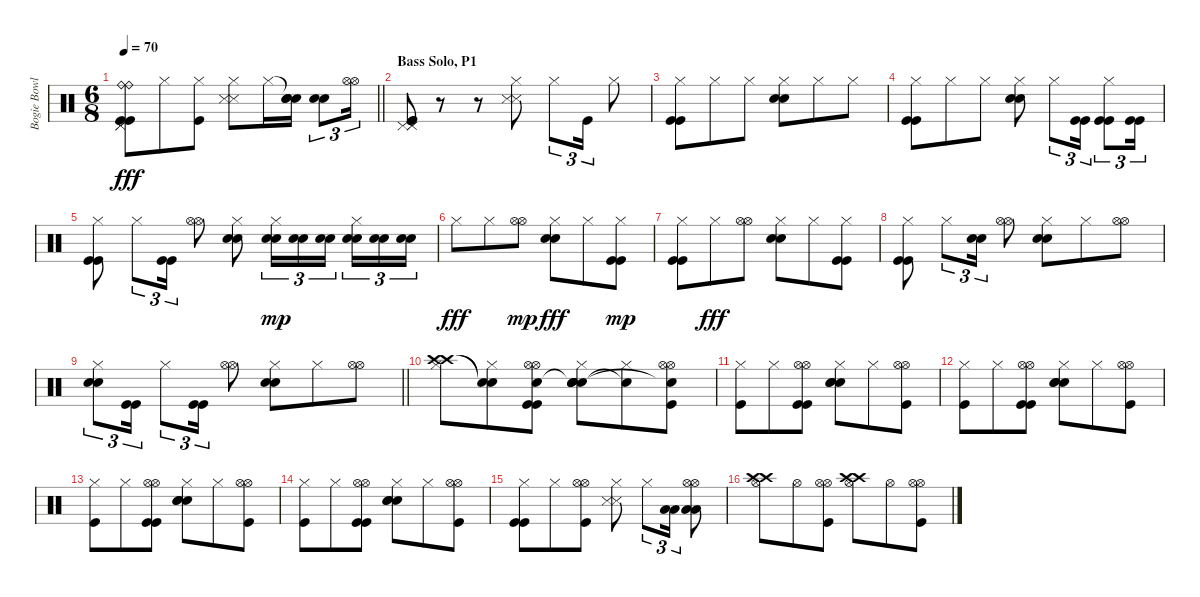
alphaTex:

\track ("Bogie Bowles" "Bogie Bowl") {instrument percussion}
\staff {score}
\articulation defaults
\ts (6 8)
\tempo 70
\clef neutral
\barLineRight lightlight
\ks c
("Pedal Hi-Hat (hit)" "Pedal Hi-Hat (hit)" "Ride (bell)" "Kick (hit)" "Kick (hit)" "Ride (bell)").8{dy fff} "Hi-Hat (closed)".8 ("Hi-Hat (closed)" "Kick (hit)").8 ("Hi-Hat (closed)" "Snare (side stick) 3" "Snare (side stick) 3").8 "Hi-Hat (closed)".16 ("Snare (hit)"{t} "Snare (hit) 2" "Snare (hit) 2").16 ("Snare (hit) 2" "Snare (hit) 2").8{tu (3 2)} ("Hi-Hat (open)" "Hi-Hat (open)").16{tu (3 2)} |
\section ("" "Bass Solo, P1")
("Pedal Hi-Hat (hit)" "Pedal Hi-Hat (hit)" "Pedal Hi-Hat (hit)" "Kick (hit)" "Kick (hit)").8 r.8{volume 16} r.8 ("Hi-Hat (closed)" "Snare (side stick) 3" "Snare (side stick) 3").8 "Hi-Hat (closed)".8{tu (3 2)} "Kick (hit)".16{tu (3 2)} "Hi-Hat (closed)".8 |
("Hi-Hat (closed)" "Kick (hit)" "Kick (hit)").8 "Hi-Hat (closed)".8 "Hi-Hat (closed)".8 ("Hi-Hat (closed)" "Snare (hit) 2" "Snare (hit) 2").8 "Hi-Hat (closed)".8 "Hi-Hat (closed)".8 |
("Hi-Hat (closed)" "Kick (hit)" "Kick (hit)").8 "Hi-Hat (closed)".8 "Hi-Hat (closed)".8 ("Hi-Hat (closed)" "Snare (hit) 2" "Snare (hit) 2").8 "Hi-Hat (closed)".8{tu (3 2)} ("Kick (hit)" "Kick (hit)").16{tu (3 2)} ("Hi-Hat (closed)" "Kick (hit)" "Kick (hit)").8{tu (3 2)} ("Kick (hit)" "Kick (hit)").16{tu (3 2)} |
("Hi-Hat (closed)" "Kick (hit)" "Kick (hit)").8 "Hi-Hat (closed)".8{tu (3 2)} ("Kick (hit)" "Kick (hit)").16{tu (3 2)} ("Hi-Hat (open)" "Hi-Hat (open)").8 ("Hi-Hat (closed)" "Snare (hit) 2" "Snare (hit) 2").8 ("Hi-Hat (closed)" "Snare (hit) 2" "Snare (hit) 2").16{tu (3 2) dy mp} ("Snare (hit) 2" "Snare (hit) 2").16{tu (3 2)} ("Snare (hit) 2" "Snare (hit) 2").16{tu (3 2) beam splitsecondary} ("Hi-Hat (closed)" "Snare (hit) 2" "Snare (hit) 2").16{tu (3 2)} ("Snare (hit) 2" "Snare (hit) 2").16{tu (3 2)} ("Snare (hit) 2" "Snare (hit) 2").16{tu (3 2)} |
"Hi-Hat (closed)".8{dy fff} "Hi-Hat (closed)".8 ("Hi-Hat (open)" "Hi-Hat (open)").8{dy mp} ("Hi-Hat (closed)" "Snare (hit) 2" "Snare (hit) 2").8{dy fff} "Hi-Hat (closed)".8 ("Hi-Hat (closed)" "Kick (hit)" "Kick (hit)").8{dy mp} |
("Hi-Hat (closed)" "Kick (hit)" "Kick (hit)").8 "Hi-Hat (closed)".8{dy fff} ("Hi-Hat (open)" "Hi-Hat (open)").8 ("Hi-Hat (closed)" "Snare (hit) 2" "Snare (hit) 2").8 "Hi-Hat (closed)".8 ("Hi-Hat (closed)" "Kick (hit)" "Kick (hit)").8 |
("Hi-Hat (closed)" "Kick (hit)" "Kick (hit)").8 "Hi-Hat (closed)".8{tu (3 2)} ("Snare (hit) 2" "Snare (hit) 2").16{tu (3 2)} ("Hi-Hat (open)" "Hi-Hat (open)").8 ("Hi-Hat (closed)" "Snare (hit) 2" "Snare (hit) 2").8 "Hi-Hat (closed)".8 ("Hi-Hat (open)" "Hi-Hat (open)").8 |
\barLineRight lightlight
("Hi-Hat (closed)" "Snare (hit) 2" "Snare (hit) 2").8{tu (3 2)} ("Kick (hit)" "Kick (hit)").16{tu (3 2)} "Hi-Hat (closed)".8{tu (3 2)} ("Kick (hit)" "Kick (hit)").16{tu (3 2)} ("Hi-Hat (open)" "Hi-Hat (open)").8 ("Hi-Hat (closed)" "Snare (hit) 2" "Snare (hit) 2").8 "Hi-Hat (closed)".8 ("Hi-Hat (open)" "Hi-Hat (open)").8 |
("Hi-Hat (closed)" "Crash high (hit)" "Crash high (hit)").8 ("Hi-Hat (closed)" "Snare (hit)"{t} "Snare (hit)"{t}).8 ("Hi-Hat (open)" "Hi-Hat (open)" "Kick (hit)" "Kick (hit)" "Snare (hit)").8 ("Hi-Hat (closed)" "Snare (hit) 2" "Snare (hit) 2" "Snare (hit) 2" "Snare (hit)"{t}).8 ("Hi-Hat (closed)" "Snare (hit)"{t}).8 ("Hi-Hat (open)" "Hi-Hat (open)" "Kick (hit)" "Snare (hit)"{t}).8 |
("Hi-Hat (closed)" "Kick (hit)").8 "Hi-Hat (closed)".8 ("Hi-Hat (open)" "Hi-Hat (open)" "Kick (hit)" "Kick (hit)").8 ("Hi-Hat (closed)" "Snare (hit) 2" "Snare (hit) 2" "Snare (hit) 2").8 "Hi-Hat (closed)".8 ("Hi-Hat (open)" "Hi-Hat (open)" "Kick (hit)").8 |
("Hi-Hat (closed)" "Kick (hit)").8 "Hi-Hat (closed)".8 ("Hi-Hat (open)" "Hi-Hat (open)" "Kick (hit)" "Kick (hit)").8 ("Hi-Hat (closed)" "Snare (hit) 2" "Snare (hit) 2" "Snare (hit) 2").8 "Hi-Hat (closed)".8 ("Hi-Hat (open)" "Hi-Hat (open)" "Kick (hit)").8 |
("Hi-Hat (closed)" "Kick (hit)").8 "Hi-Hat (closed)".8 ("Hi-Hat (open)" "Hi-Hat (open)" "Kick (hit)" "Kick (hit)").8 ("Hi-Hat (closed)" "Snare (hit) 2" "Snare (hit) 2" "Snare (hit) 2").8 "Hi-Hat (closed)".8 ("Hi-Hat (open)" "Hi-Hat (open)" "Kick (hit)").8 |
("Hi-Hat (closed)" "Kick (hit)").8 "Hi-Hat (closed)".8 ("Hi-Hat (open)" "Hi-Hat (open)" "Kick (hit)" "Kick (hit)").8 ("Hi-Hat (closed)" "Snare (hit) 2" "Snare (hit) 2" "Snare (hit) 2").8 "Hi-Hat (closed)".8 ("Hi-Hat (open)" "Hi-Hat (open)" "Kick (hit)").8 |
("Hi-Hat (closed)" "Kick (hit)" "Kick (hit)").8 "Hi-Hat (closed)".8 ("Hi-Hat (open)" "Hi-Hat (open)" "Kick (hit)").8 ("Hi-Hat (closed)" "Snare (side stick) 3" "Snare (side stick) 3").8 "Hi-Hat (closed)".8{tu (3 2)} ("Low Tom (hit)" "Low Tom (hit)").16{tu (3 2)} ("Hi-Hat (open)" "Hi-Hat (open)" "Low Tom (hit)" "Low Tom (hit)").8 |
("Hi-Hat (open)" "Crash high (hit)" "Crash high (hit)").8 "Hi-Hat (open)".8 ("Hi-Hat (open)" "Hi-Hat (open)" "Kick (hit)").8 ("Hi-Hat (open)" "Crash high (hit)" "Crash high (hit)").8 "Hi-Hat (open)".8 ("Hi-Hat (open)" "Hi-Hat (open)" "Kick (hit)").8
